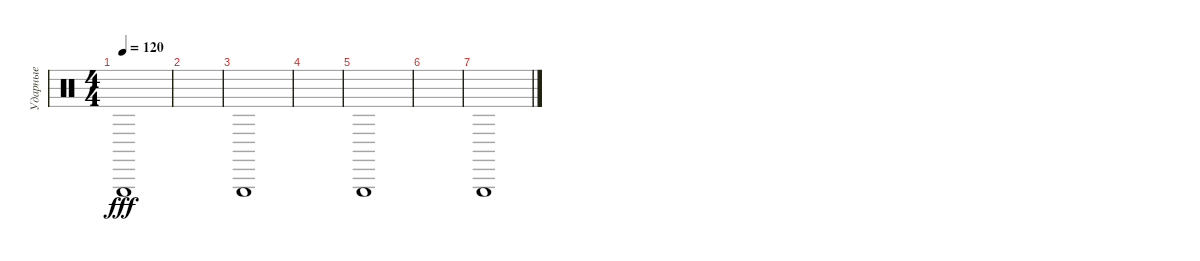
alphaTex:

\track ("Ударные" "Ударные") {instrument percussion}
\staff {score}
\articulation defaults
\ts (4 4)
\tempo 120
\clef neutral
\ks c "Triangle (hit)".1{dy fff}
|
|
"Triangle (hit)".1 |
|
"Triangle (hit)".1 |
|
"Triangle (hit)".1
